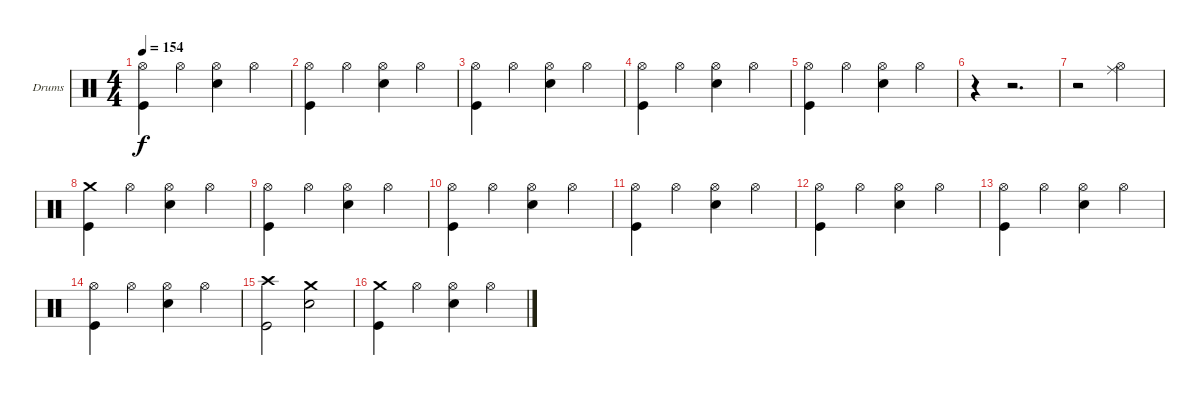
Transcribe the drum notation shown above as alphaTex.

\bracketExtendMode groupsimilarinstruments
\firstSystemTrackNameOrientation horizontal
\otherSystemsTrackNameOrientation horizontal
\track ("Drumkit (Christoph)" "Drums") {instrument percussion}
\staff {score}
\articulation defaults
\ts (4 4)
\tempo 154
\clef neutral
\ks c
("Hi-Hat (open)" "Kick (hit)").4{dy f} "Hi-Hat (open)".4 ("Hi-Hat (open)" "Snare (hit) 2").4 "Hi-Hat (open)".4 |
("Hi-Hat (open)" "Kick (hit)").4 "Hi-Hat (open)".4 ("Hi-Hat (open)" "Snare (hit) 2").4 "Hi-Hat (open)".4 |
("Hi-Hat (open)" "Kick (hit)").4 "Hi-Hat (open)".4 ("Hi-Hat (open)" "Snare (hit) 2").4 "Hi-Hat (open)".4 |
("Hi-Hat (open)" "Kick (hit)").4 "Hi-Hat (open)".4 ("Hi-Hat (open)" "Snare (hit) 2").4 "Hi-Hat (open)".4 |
("Hi-Hat (open)" "Kick (hit)").4 "Hi-Hat (open)".4 ("Hi-Hat (open)" "Snare (hit) 2").4 "Hi-Hat (open)".4 |
r.4 r.2{d} |
r.2 ("Ride (middle)" "Hi-Hat (open)").2 |
("Crash medium (hit)" "Kick (hit)").4 "Hi-Hat (open)".4 ("Hi-Hat (open)" "Snare (hit) 2").4 "Hi-Hat (open)".4 |
("Hi-Hat (open)" "Kick (hit)").4 "Hi-Hat (open)".4 ("Hi-Hat (open)" "Snare (hit) 2").4 "Hi-Hat (open)".4 |
("Hi-Hat (open)" "Kick (hit)").4 "Hi-Hat (open)".4 ("Hi-Hat (open)" "Snare (hit) 2").4 "Hi-Hat (open)".4 |
("Hi-Hat (open)" "Kick (hit)").4 "Hi-Hat (open)".4 ("Hi-Hat (open)" "Snare (hit) 2").4 "Hi-Hat (open)".4 |
("Hi-Hat (open)" "Kick (hit)").4 "Hi-Hat (open)".4 ("Hi-Hat (open)" "Snare (hit) 2").4 "Hi-Hat (open)".4 |
("Hi-Hat (open)" "Kick (hit)").4 "Hi-Hat (open)".4 ("Hi-Hat (open)" "Snare (hit) 2").4 "Hi-Hat (open)".4 |
("Hi-Hat (open)" "Kick (hit)").4 "Hi-Hat (open)".4 ("Hi-Hat (open)" "Snare (hit) 2").4 "Hi-Hat (open)".4 |
("Crash high (hit)" "Kick (hit)").2 ("Crash medium (hit)" "Snare (hit) 2").2 |
("Crash medium (hit)" "Kick (hit)").4 "Hi-Hat (open)".4 ("Hi-Hat (open)" "Snare (hit) 2").4 "Hi-Hat (open)".4
